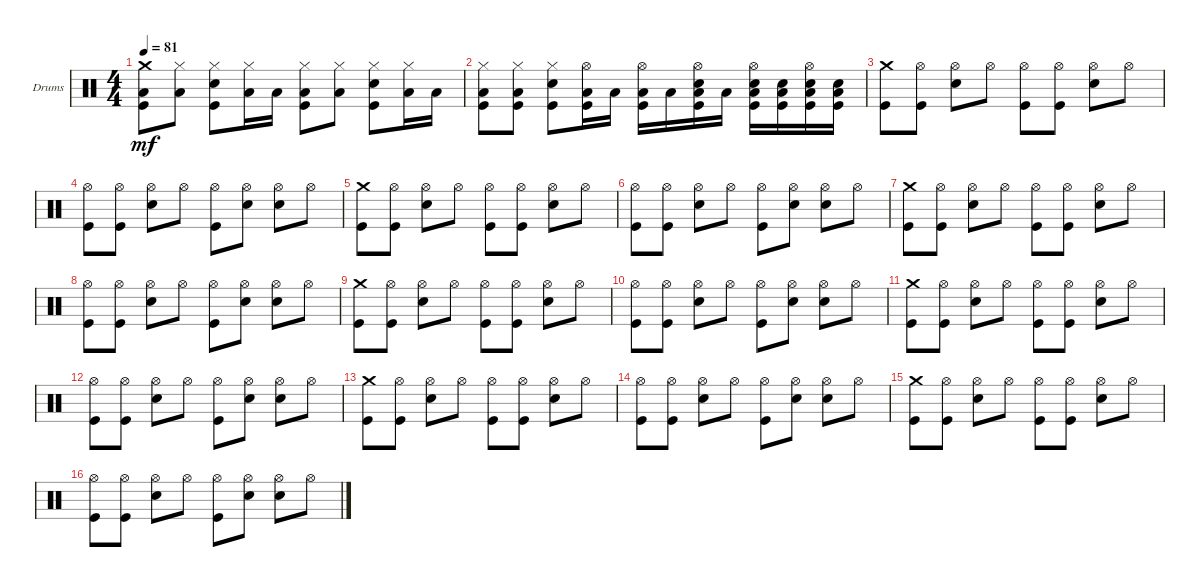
\bracketExtendMode groupsimilarinstruments
\firstSystemTrackNameOrientation horizontal
\otherSystemsTrackNameOrientation horizontal
\track ("Drumkit" "Drums") {instrument percussion}
\staff {score}
\articulation defaults
\ts (4 4)
\tempo 81
\clef neutral
\ks c
("Kick (hit)" "Low Tom (hit)" "Crash medium (hit)").8{dy mf} ("Hi-Hat (closed)" "Low Tom (hit)").8 ("Kick (hit)" "Snare (hit) 2" "Hi-Hat (closed)").8 ("Hi-Hat (closed)" "Low Tom (hit)").16 "Low Tom (hit)".16 ("Kick (hit)" "Hi-Hat (closed)" "Low Tom (hit)").8 ("Hi-Hat (closed)" "Low Tom (hit)").8 ("Kick (hit)" "Snare (hit) 2" "Hi-Hat (closed)").8 ("Hi-Hat (closed)" "Low Tom (hit)").16 "Low Tom (hit)".16 |
("Kick (hit)" "Hi-Hat (closed)" "Low Tom (hit)").8 ("Kick (hit)" "Hi-Hat (closed)" "Low Tom (hit)").8 ("Kick (hit)" "Snare (hit) 2" "Hi-Hat (closed)").8 ("Kick (hit)" "Low Tom (hit)" "Hi-Hat (open)").16 "Low Tom (hit)".16 ("Kick (hit)" "Low Tom (hit)" "Hi-Hat (open)").16 "Low Tom (hit)".16 ("Kick (hit)" "Snare (hit) 2" "Low Tom (hit)" "Hi-Hat (open)").16 "Low Tom (hit)".16 ("Kick (hit)" "Snare (hit) 2" "Low Tom (hit)" "Hi-Hat (open)").16 ("Kick (hit)" "Snare (hit) 2" "Low Tom (hit)").16 ("Kick (hit)" "Snare (hit) 2" "Low Tom (hit)" "Hi-Hat (open)").16 ("Kick (hit)" "Snare (hit) 2" "Low Tom (hit)").16 |
("Kick (hit)" "Crash medium (hit)").8 ("Kick (hit)" "Hi-Hat (open)").8 ("Snare (hit) 2" "Hi-Hat (open)").8 "Hi-Hat (open)".8 ("Kick (hit)" "Hi-Hat (open)").8 ("Kick (hit)" "Hi-Hat (open)").8 ("Snare (hit) 2" "Hi-Hat (open)").8 "Hi-Hat (open)".8 |
("Kick (hit)" "Hi-Hat (open)").8 ("Kick (hit)" "Hi-Hat (open)").8 ("Snare (hit) 2" "Hi-Hat (open)").8 "Hi-Hat (open)".8 ("Kick (hit)" "Hi-Hat (open)").8 ("Snare (hit) 2" "Hi-Hat (open)").8 ("Snare (hit) 2" "Hi-Hat (open)").8 "Hi-Hat (open)".8 |
("Kick (hit)" "Crash medium (hit)").8 ("Kick (hit)" "Hi-Hat (open)").8 ("Snare (hit) 2" "Hi-Hat (open)").8 "Hi-Hat (open)".8 ("Kick (hit)" "Hi-Hat (open)").8 ("Kick (hit)" "Hi-Hat (open)").8 ("Snare (hit) 2" "Hi-Hat (open)").8 "Hi-Hat (open)".8 |
("Kick (hit)" "Hi-Hat (open)").8 ("Kick (hit)" "Hi-Hat (open)").8 ("Snare (hit) 2" "Hi-Hat (open)").8 "Hi-Hat (open)".8 ("Kick (hit)" "Hi-Hat (open)").8 ("Snare (hit) 2" "Hi-Hat (open)").8 ("Snare (hit) 2" "Hi-Hat (open)").8 "Hi-Hat (open)".8 |
("Kick (hit)" "Crash medium (hit)").8 ("Kick (hit)" "Hi-Hat (open)").8 ("Snare (hit) 2" "Hi-Hat (open)").8 "Hi-Hat (open)".8 ("Kick (hit)" "Hi-Hat (open)").8 ("Kick (hit)" "Hi-Hat (open)").8 ("Snare (hit) 2" "Hi-Hat (open)").8 "Hi-Hat (open)".8 |
("Kick (hit)" "Hi-Hat (open)").8 ("Kick (hit)" "Hi-Hat (open)").8 ("Snare (hit) 2" "Hi-Hat (open)").8 "Hi-Hat (open)".8 ("Kick (hit)" "Hi-Hat (open)").8 ("Snare (hit) 2" "Hi-Hat (open)").8 ("Snare (hit) 2" "Hi-Hat (open)").8 "Hi-Hat (open)".8 |
("Kick (hit)" "Crash medium (hit)").8 ("Kick (hit)" "Hi-Hat (open)").8 ("Snare (hit) 2" "Hi-Hat (open)").8 "Hi-Hat (open)".8 ("Kick (hit)" "Hi-Hat (open)").8 ("Kick (hit)" "Hi-Hat (open)").8 ("Snare (hit) 2" "Hi-Hat (open)").8 "Hi-Hat (open)".8 |
("Kick (hit)" "Hi-Hat (open)").8 ("Kick (hit)" "Hi-Hat (open)").8 ("Snare (hit) 2" "Hi-Hat (open)").8 "Hi-Hat (open)".8 ("Kick (hit)" "Hi-Hat (open)").8 ("Snare (hit) 2" "Hi-Hat (open)").8 ("Snare (hit) 2" "Hi-Hat (open)").8 "Hi-Hat (open)".8 |
("Kick (hit)" "Crash medium (hit)").8 ("Kick (hit)" "Hi-Hat (open)").8 ("Snare (hit) 2" "Hi-Hat (open)").8 "Hi-Hat (open)".8 ("Kick (hit)" "Hi-Hat (open)").8 ("Kick (hit)" "Hi-Hat (open)").8 ("Snare (hit) 2" "Hi-Hat (open)").8 "Hi-Hat (open)".8 |
("Kick (hit)" "Hi-Hat (open)").8 ("Kick (hit)" "Hi-Hat (open)").8 ("Snare (hit) 2" "Hi-Hat (open)").8 "Hi-Hat (open)".8 ("Kick (hit)" "Hi-Hat (open)").8 ("Snare (hit) 2" "Hi-Hat (open)").8 ("Snare (hit) 2" "Hi-Hat (open)").8 "Hi-Hat (open)".8 |
("Kick (hit)" "Crash medium (hit)").8 ("Kick (hit)" "Hi-Hat (open)").8 ("Snare (hit) 2" "Hi-Hat (open)").8 "Hi-Hat (open)".8 ("Kick (hit)" "Hi-Hat (open)").8 ("Kick (hit)" "Hi-Hat (open)").8 ("Snare (hit) 2" "Hi-Hat (open)").8 "Hi-Hat (open)".8 |
("Kick (hit)" "Hi-Hat (open)").8 ("Kick (hit)" "Hi-Hat (open)").8 ("Snare (hit) 2" "Hi-Hat (open)").8 "Hi-Hat (open)".8 ("Kick (hit)" "Hi-Hat (open)").8 ("Snare (hit) 2" "Hi-Hat (open)").8 ("Snare (hit) 2" "Hi-Hat (open)").8 "Hi-Hat (open)".8 |
("Kick (hit)" "Crash medium (hit)").8 ("Kick (hit)" "Hi-Hat (open)").8 ("Snare (hit) 2" "Hi-Hat (open)").8 "Hi-Hat (open)".8 ("Kick (hit)" "Hi-Hat (open)").8 ("Kick (hit)" "Hi-Hat (open)").8 ("Snare (hit) 2" "Hi-Hat (open)").8 "Hi-Hat (open)".8 |
("Kick (hit)" "Hi-Hat (open)").8 ("Kick (hit)" "Hi-Hat (open)").8 ("Snare (hit) 2" "Hi-Hat (open)").8 "Hi-Hat (open)".8 ("Kick (hit)" "Hi-Hat (open)").8 ("Snare (hit) 2" "Hi-Hat (open)").8 ("Snare (hit) 2" "Hi-Hat (open)").8 "Hi-Hat (open)".8
